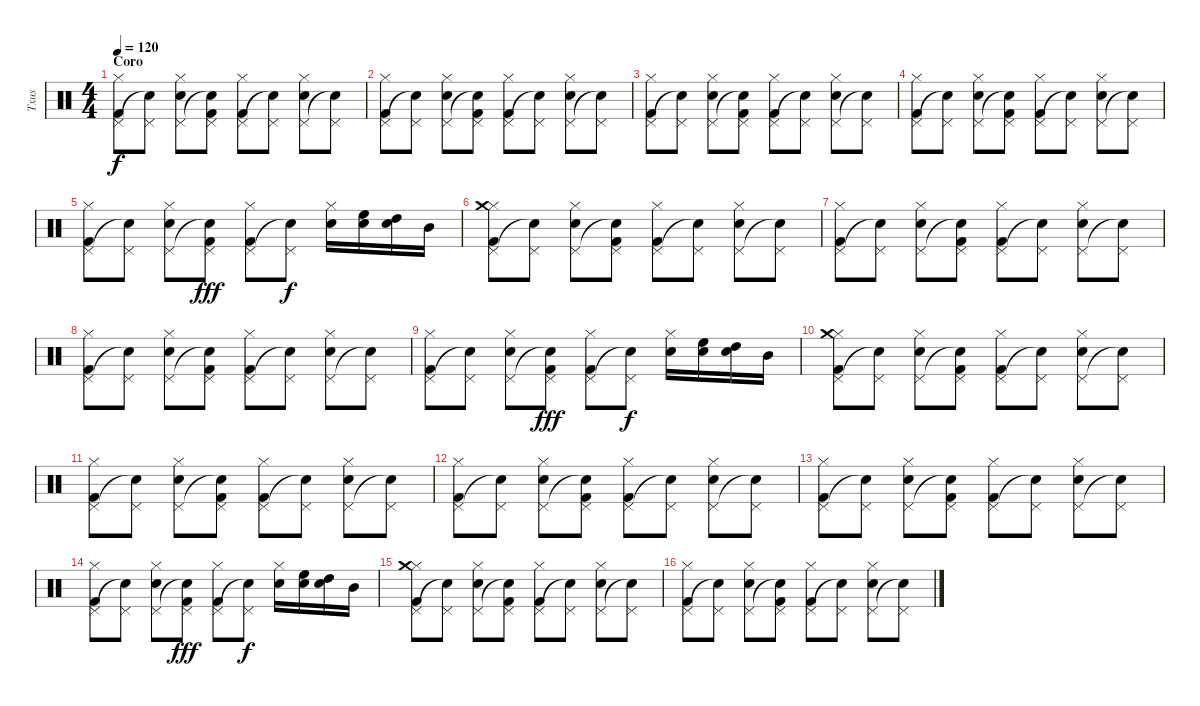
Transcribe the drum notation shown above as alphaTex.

\track ("Txus" "Txus") {instrument percussion}
\staff {score}
\articulation defaults
\ts (4 4)
\section ("" "Coro")
\tempo 120
\clef neutral
\ks c
("Hi-Hat (closed)" "Pedal Hi-Hat (hit)" "Kick (hit) 2").8{dy f} ("Pedal Hi-Hat (hit)" "Snare (hit)"{t}).8 ("Hi-Hat (closed)" "Pedal Hi-Hat (hit)" "Snare (hit) 2").8 ("Pedal Hi-Hat (hit)" "Snare (hit)"{t} "Kick (hit) 2").8 ("Hi-Hat (closed)" "Pedal Hi-Hat (hit)" "Kick (hit) 2").8 ("Pedal Hi-Hat (hit)" "Snare (hit)"{t}).8 ("Hi-Hat (closed)" "Pedal Hi-Hat (hit)" "Snare (hit) 2").8 ("Pedal Hi-Hat (hit)" "Snare (hit) 2"{t}).8 |
("Hi-Hat (closed)" "Pedal Hi-Hat (hit)" "Kick (hit) 2").8 ("Pedal Hi-Hat (hit)" "Snare (hit)"{t}).8 ("Hi-Hat (closed)" "Pedal Hi-Hat (hit)" "Snare (hit) 2").8 ("Pedal Hi-Hat (hit)" "Snare (hit)"{t} "Kick (hit) 2").8 ("Hi-Hat (closed)" "Pedal Hi-Hat (hit)" "Kick (hit) 2").8 ("Pedal Hi-Hat (hit)" "Snare (hit)"{t}).8 ("Hi-Hat (closed)" "Pedal Hi-Hat (hit)" "Snare (hit) 2").8 ("Pedal Hi-Hat (hit)" "Snare (hit) 2"{t}).8 |
("Hi-Hat (closed)" "Pedal Hi-Hat (hit)" "Kick (hit) 2").8 ("Pedal Hi-Hat (hit)" "Snare (hit)"{t}).8 ("Hi-Hat (closed)" "Pedal Hi-Hat (hit)" "Snare (hit) 2").8 ("Pedal Hi-Hat (hit)" "Snare (hit)"{t} "Kick (hit) 2").8 ("Hi-Hat (closed)" "Pedal Hi-Hat (hit)" "Kick (hit) 2").8 ("Pedal Hi-Hat (hit)" "Snare (hit)"{t}).8 ("Hi-Hat (closed)" "Pedal Hi-Hat (hit)" "Snare (hit) 2").8 ("Pedal Hi-Hat (hit)" "Snare (hit) 2"{t}).8 |
("Hi-Hat (closed)" "Pedal Hi-Hat (hit)" "Kick (hit) 2").8 ("Pedal Hi-Hat (hit)" "Snare (hit)"{t}).8 ("Hi-Hat (closed)" "Pedal Hi-Hat (hit)" "Snare (hit) 2").8 ("Pedal Hi-Hat (hit)" "Snare (hit)"{t} "Kick (hit) 2").8 ("Hi-Hat (closed)" "Pedal Hi-Hat (hit)" "Kick (hit) 2").8 ("Pedal Hi-Hat (hit)" "Snare (hit)"{t}).8 ("Hi-Hat (closed)" "Pedal Hi-Hat (hit)" "Snare (hit) 2").8 ("Pedal Hi-Hat (hit)" "Snare (hit) 2"{t}).8 |
("Hi-Hat (closed)" "Pedal Hi-Hat (hit)" "Kick (hit) 2").8 ("Pedal Hi-Hat (hit)" "Snare (hit)"{t}).8 ("Hi-Hat (closed)" "Pedal Hi-Hat (hit)" "Snare (hit) 2").8 ("Pedal Hi-Hat (hit)" "Snare (hit)"{t} "Kick (hit) 2").8{dy fff} ("Hi-Hat (closed)" "Pedal Hi-Hat (hit)" "Kick (hit) 2").8 ("Pedal Hi-Hat (hit)" "Snare (hit)"{t}).8{dy f} ("Hi-Hat (closed)" "Snare (hit) 2").16 ("High Floor Tom (hit)" "Snare (hit) 2").16 ("High Tom (hit)" "Snare (hit) 2").16 "Mid Tom (hit)".16 |
("Hi-Hat (closed)" "Pedal Hi-Hat (hit)" "Crash medium (hit)" "Kick (hit) 2").8 ("Pedal Hi-Hat (hit)" "Snare (hit)"{t}).8 ("Hi-Hat (closed)" "Pedal Hi-Hat (hit)" "Snare (hit) 2").8 ("Pedal Hi-Hat (hit)" "Snare (hit)"{t} "Kick (hit) 2").8 ("Hi-Hat (closed)" "Pedal Hi-Hat (hit)" "Kick (hit) 2").8 ("Pedal Hi-Hat (hit)" "Snare (hit)"{t}).8 ("Hi-Hat (closed)" "Pedal Hi-Hat (hit)" "Snare (hit) 2").8 ("Pedal Hi-Hat (hit)" "Snare (hit) 2"{t}).8 |
("Hi-Hat (closed)" "Pedal Hi-Hat (hit)" "Kick (hit) 2").8 ("Pedal Hi-Hat (hit)" "Snare (hit)"{t}).8 ("Hi-Hat (closed)" "Pedal Hi-Hat (hit)" "Snare (hit) 2").8 ("Pedal Hi-Hat (hit)" "Snare (hit)"{t} "Kick (hit) 2").8 ("Hi-Hat (closed)" "Pedal Hi-Hat (hit)" "Kick (hit) 2").8 ("Pedal Hi-Hat (hit)" "Snare (hit)"{t}).8 ("Hi-Hat (closed)" "Pedal Hi-Hat (hit)" "Snare (hit) 2").8 ("Pedal Hi-Hat (hit)" "Snare (hit) 2"{t}).8 |
("Hi-Hat (closed)" "Pedal Hi-Hat (hit)" "Kick (hit) 2").8 ("Pedal Hi-Hat (hit)" "Snare (hit)"{t}).8 ("Hi-Hat (closed)" "Pedal Hi-Hat (hit)" "Snare (hit) 2").8 ("Pedal Hi-Hat (hit)" "Snare (hit)"{t} "Kick (hit) 2").8 ("Hi-Hat (closed)" "Pedal Hi-Hat (hit)" "Kick (hit) 2").8 ("Pedal Hi-Hat (hit)" "Snare (hit)"{t}).8 ("Hi-Hat (closed)" "Pedal Hi-Hat (hit)" "Snare (hit) 2").8 ("Pedal Hi-Hat (hit)" "Snare (hit) 2"{t}).8 |
("Hi-Hat (closed)" "Pedal Hi-Hat (hit)" "Kick (hit) 2").8 ("Pedal Hi-Hat (hit)" "Snare (hit)"{t}).8 ("Hi-Hat (closed)" "Pedal Hi-Hat (hit)" "Snare (hit) 2").8 ("Pedal Hi-Hat (hit)" "Snare (hit)"{t} "Kick (hit) 2").8{dy fff} ("Hi-Hat (closed)" "Pedal Hi-Hat (hit)" "Kick (hit) 2").8 ("Pedal Hi-Hat (hit)" "Snare (hit)"{t}).8{dy f} ("Hi-Hat (closed)" "Snare (hit) 2").16 ("High Floor Tom (hit)" "Snare (hit) 2").16 ("High Tom (hit)" "Snare (hit) 2").16 "Mid Tom (hit)".16 |
("Hi-Hat (closed)" "Pedal Hi-Hat (hit)" "Crash medium (hit)" "Kick (hit) 2").8 ("Pedal Hi-Hat (hit)" "Snare (hit)"{t}).8 ("Hi-Hat (closed)" "Pedal Hi-Hat (hit)" "Snare (hit) 2").8 ("Pedal Hi-Hat (hit)" "Snare (hit)"{t} "Kick (hit) 2").8 ("Hi-Hat (closed)" "Pedal Hi-Hat (hit)" "Kick (hit) 2").8 ("Pedal Hi-Hat (hit)" "Snare (hit)"{t}).8 ("Hi-Hat (closed)" "Pedal Hi-Hat (hit)" "Snare (hit) 2").8 ("Pedal Hi-Hat (hit)" "Snare (hit) 2"{t}).8 |
("Hi-Hat (closed)" "Pedal Hi-Hat (hit)" "Kick (hit) 2").8 ("Pedal Hi-Hat (hit)" "Snare (hit)"{t}).8 ("Hi-Hat (closed)" "Pedal Hi-Hat (hit)" "Snare (hit) 2").8 ("Pedal Hi-Hat (hit)" "Snare (hit)"{t} "Kick (hit) 2").8 ("Hi-Hat (closed)" "Pedal Hi-Hat (hit)" "Kick (hit) 2").8 ("Pedal Hi-Hat (hit)" "Snare (hit)"{t}).8 ("Hi-Hat (closed)" "Pedal Hi-Hat (hit)" "Snare (hit) 2").8 ("Pedal Hi-Hat (hit)" "Snare (hit) 2"{t}).8 |
("Hi-Hat (closed)" "Pedal Hi-Hat (hit)" "Kick (hit) 2").8 ("Pedal Hi-Hat (hit)" "Snare (hit)"{t}).8 ("Hi-Hat (closed)" "Pedal Hi-Hat (hit)" "Snare (hit) 2").8 ("Pedal Hi-Hat (hit)" "Snare (hit)"{t} "Kick (hit) 2").8 ("Hi-Hat (closed)" "Pedal Hi-Hat (hit)" "Kick (hit) 2").8 ("Pedal Hi-Hat (hit)" "Snare (hit)"{t}).8 ("Hi-Hat (closed)" "Pedal Hi-Hat (hit)" "Snare (hit) 2").8 ("Pedal Hi-Hat (hit)" "Snare (hit) 2"{t}).8 |
("Hi-Hat (closed)" "Pedal Hi-Hat (hit)" "Kick (hit) 2").8 ("Pedal Hi-Hat (hit)" "Snare (hit)"{t}).8 ("Hi-Hat (closed)" "Pedal Hi-Hat (hit)" "Snare (hit) 2").8 ("Pedal Hi-Hat (hit)" "Snare (hit)"{t} "Kick (hit) 2").8 ("Hi-Hat (closed)" "Pedal Hi-Hat (hit)" "Kick (hit) 2").8 ("Pedal Hi-Hat (hit)" "Snare (hit)"{t}).8 ("Hi-Hat (closed)" "Pedal Hi-Hat (hit)" "Snare (hit) 2").8 ("Pedal Hi-Hat (hit)" "Snare (hit) 2"{t}).8 |
("Hi-Hat (closed)" "Pedal Hi-Hat (hit)" "Kick (hit) 2").8 ("Pedal Hi-Hat (hit)" "Snare (hit)"{t}).8 ("Hi-Hat (closed)" "Pedal Hi-Hat (hit)" "Snare (hit) 2").8 ("Pedal Hi-Hat (hit)" "Snare (hit)"{t} "Kick (hit) 2").8{dy fff} ("Hi-Hat (closed)" "Pedal Hi-Hat (hit)" "Kick (hit) 2").8 ("Pedal Hi-Hat (hit)" "Snare (hit)"{t}).8{dy f} ("Hi-Hat (closed)" "Snare (hit) 2").16 ("High Floor Tom (hit)" "Snare (hit) 2").16 ("High Tom (hit)" "Snare (hit) 2").16 "Mid Tom (hit)".16 |
("Hi-Hat (closed)" "Pedal Hi-Hat (hit)" "Crash medium (hit)" "Kick (hit) 2").8 ("Pedal Hi-Hat (hit)" "Snare (hit)"{t}).8 ("Hi-Hat (closed)" "Pedal Hi-Hat (hit)" "Snare (hit) 2").8 ("Pedal Hi-Hat (hit)" "Snare (hit)"{t} "Kick (hit) 2").8 ("Hi-Hat (closed)" "Pedal Hi-Hat (hit)" "Kick (hit) 2").8 ("Pedal Hi-Hat (hit)" "Snare (hit)"{t}).8 ("Hi-Hat (closed)" "Pedal Hi-Hat (hit)" "Snare (hit) 2").8 ("Pedal Hi-Hat (hit)" "Snare (hit) 2"{t}).8 |
("Hi-Hat (closed)" "Pedal Hi-Hat (hit)" "Kick (hit) 2").8 ("Pedal Hi-Hat (hit)" "Snare (hit)"{t}).8 ("Hi-Hat (closed)" "Pedal Hi-Hat (hit)" "Snare (hit) 2").8 ("Pedal Hi-Hat (hit)" "Snare (hit)"{t} "Kick (hit) 2").8 ("Hi-Hat (closed)" "Pedal Hi-Hat (hit)" "Kick (hit) 2").8 ("Pedal Hi-Hat (hit)" "Snare (hit)"{t}).8 ("Hi-Hat (closed)" "Pedal Hi-Hat (hit)" "Snare (hit) 2").8 ("Pedal Hi-Hat (hit)" "Snare (hit) 2"{t}).8
